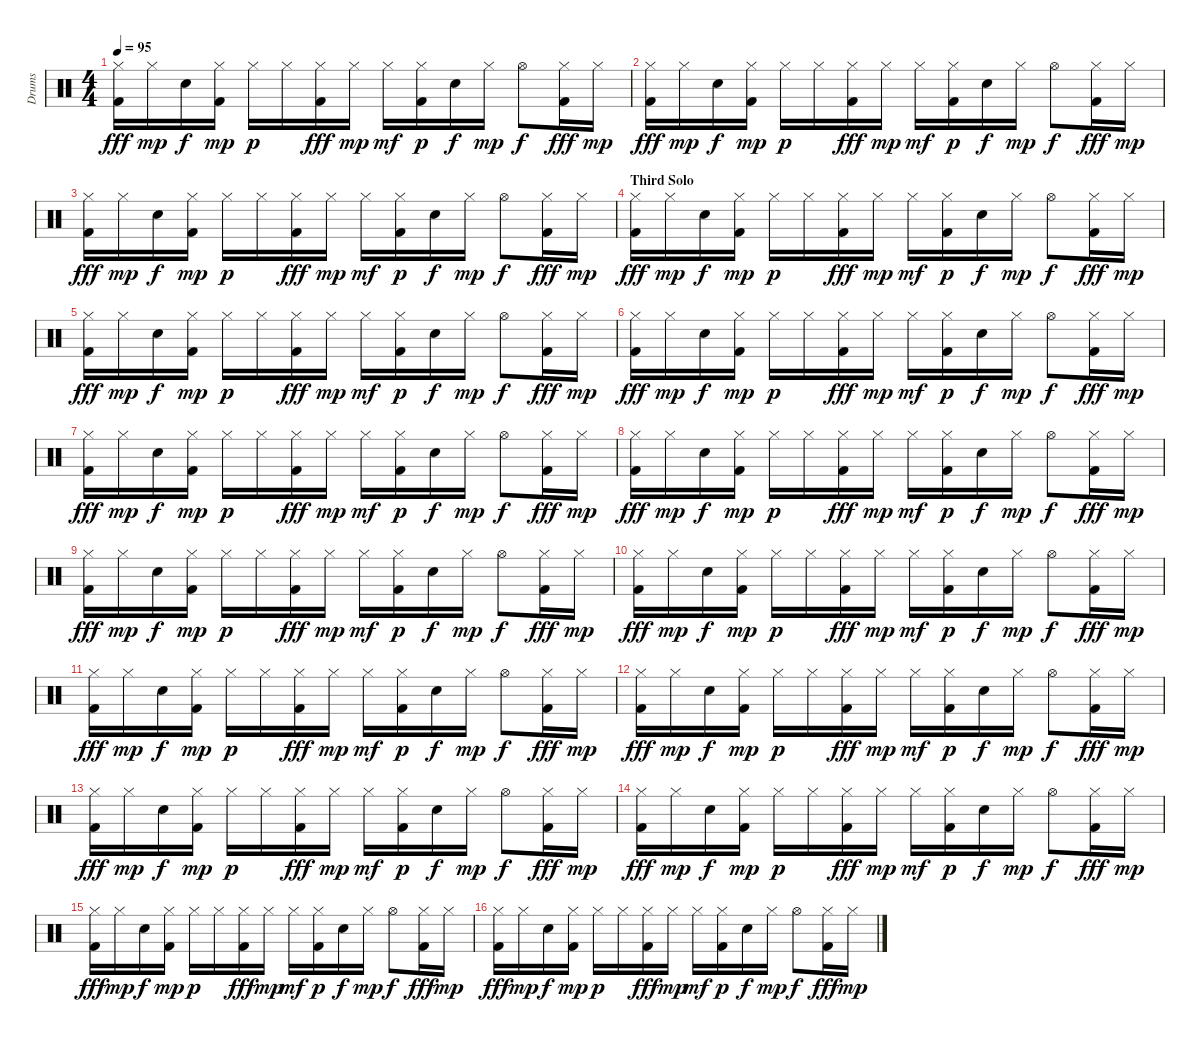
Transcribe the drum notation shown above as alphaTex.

\track ("Drums" "Drums") {instrument percussion}
\staff {score}
\articulation defaults
\ts (4 4)
\tempo 95
\clef neutral
\ks c
("Hi-Hat (closed)" "Kick (hit) 2").16{dy fff} "Hi-Hat (closed)".16{dy mp} "Electric Snare (hit)".16{dy f} ("Hi-Hat (closed)" "Kick (hit) 2").16{dy mp} "Hi-Hat (closed)".16{dy p} "Hi-Hat (closed)".16 ("Hi-Hat (closed)" "Kick (hit) 2").16{dy fff} "Hi-Hat (closed)".16{dy mp} "Hi-Hat (closed)".16{dy mf} ("Hi-Hat (closed)" "Kick (hit) 2").16{dy p} "Electric Snare (hit)".16{dy f} "Hi-Hat (closed)".16{dy mp} "Hi-Hat (open)".8{dy f} ("Hi-Hat (closed)" "Kick (hit) 2").16{dy fff} "Hi-Hat (closed)".16{dy mp} |
("Hi-Hat (closed)" "Kick (hit) 2").16{dy fff} "Hi-Hat (closed)".16{dy mp} "Electric Snare (hit)".16{dy f} ("Hi-Hat (closed)" "Kick (hit) 2").16{dy mp} "Hi-Hat (closed)".16{dy p} "Hi-Hat (closed)".16 ("Hi-Hat (closed)" "Kick (hit) 2").16{dy fff} "Hi-Hat (closed)".16{dy mp} "Hi-Hat (closed)".16{dy mf} ("Hi-Hat (closed)" "Kick (hit) 2").16{dy p} "Electric Snare (hit)".16{dy f} "Hi-Hat (closed)".16{dy mp} "Hi-Hat (open)".8{dy f} ("Hi-Hat (closed)" "Kick (hit) 2").16{dy fff} "Hi-Hat (closed)".16{dy mp} |
("Hi-Hat (closed)" "Kick (hit) 2").16{dy fff} "Hi-Hat (closed)".16{dy mp} "Electric Snare (hit)".16{dy f} ("Hi-Hat (closed)" "Kick (hit) 2").16{dy mp} "Hi-Hat (closed)".16{dy p} "Hi-Hat (closed)".16 ("Hi-Hat (closed)" "Kick (hit) 2").16{dy fff} "Hi-Hat (closed)".16{dy mp} "Hi-Hat (closed)".16{dy mf} ("Hi-Hat (closed)" "Kick (hit) 2").16{dy p} "Electric Snare (hit)".16{dy f} "Hi-Hat (closed)".16{dy mp} "Hi-Hat (open)".8{dy f} ("Hi-Hat (closed)" "Kick (hit) 2").16{dy fff} "Hi-Hat (closed)".16{dy mp} |
\section ("" "Third Solo")
("Hi-Hat (closed)" "Kick (hit) 2").16{dy fff} "Hi-Hat (closed)".16{dy mp} "Electric Snare (hit)".16{dy f} ("Hi-Hat (closed)" "Kick (hit) 2").16{dy mp} "Hi-Hat (closed)".16{dy p} "Hi-Hat (closed)".16 ("Hi-Hat (closed)" "Kick (hit) 2").16{dy fff} "Hi-Hat (closed)".16{dy mp} "Hi-Hat (closed)".16{dy mf} ("Hi-Hat (closed)" "Kick (hit) 2").16{dy p} "Electric Snare (hit)".16{dy f} "Hi-Hat (closed)".16{dy mp} "Hi-Hat (open)".8{dy f} ("Hi-Hat (closed)" "Kick (hit) 2").16{dy fff} "Hi-Hat (closed)".16{dy mp} |
("Hi-Hat (closed)" "Kick (hit) 2").16{dy fff} "Hi-Hat (closed)".16{dy mp} "Electric Snare (hit)".16{dy f} ("Hi-Hat (closed)" "Kick (hit) 2").16{dy mp} "Hi-Hat (closed)".16{dy p} "Hi-Hat (closed)".16 ("Hi-Hat (closed)" "Kick (hit) 2").16{dy fff} "Hi-Hat (closed)".16{dy mp} "Hi-Hat (closed)".16{dy mf} ("Hi-Hat (closed)" "Kick (hit) 2").16{dy p} "Electric Snare (hit)".16{dy f} "Hi-Hat (closed)".16{dy mp} "Hi-Hat (open)".8{dy f} ("Hi-Hat (closed)" "Kick (hit) 2").16{dy fff} "Hi-Hat (closed)".16{dy mp} |
("Hi-Hat (closed)" "Kick (hit) 2").16{dy fff} "Hi-Hat (closed)".16{dy mp} "Electric Snare (hit)".16{dy f} ("Hi-Hat (closed)" "Kick (hit) 2").16{dy mp} "Hi-Hat (closed)".16{dy p} "Hi-Hat (closed)".16 ("Hi-Hat (closed)" "Kick (hit) 2").16{dy fff} "Hi-Hat (closed)".16{dy mp} "Hi-Hat (closed)".16{dy mf} ("Hi-Hat (closed)" "Kick (hit) 2").16{dy p} "Electric Snare (hit)".16{dy f} "Hi-Hat (closed)".16{dy mp} "Hi-Hat (open)".8{dy f} ("Hi-Hat (closed)" "Kick (hit) 2").16{dy fff} "Hi-Hat (closed)".16{dy mp} |
("Hi-Hat (closed)" "Kick (hit) 2").16{dy fff} "Hi-Hat (closed)".16{dy mp} "Electric Snare (hit)".16{dy f} ("Hi-Hat (closed)" "Kick (hit) 2").16{dy mp} "Hi-Hat (closed)".16{dy p} "Hi-Hat (closed)".16 ("Hi-Hat (closed)" "Kick (hit) 2").16{dy fff} "Hi-Hat (closed)".16{dy mp} "Hi-Hat (closed)".16{dy mf} ("Hi-Hat (closed)" "Kick (hit) 2").16{dy p} "Electric Snare (hit)".16{dy f} "Hi-Hat (closed)".16{dy mp} "Hi-Hat (open)".8{dy f} ("Hi-Hat (closed)" "Kick (hit) 2").16{dy fff} "Hi-Hat (closed)".16{dy mp} |
("Hi-Hat (closed)" "Kick (hit) 2").16{dy fff} "Hi-Hat (closed)".16{dy mp} "Electric Snare (hit)".16{dy f} ("Hi-Hat (closed)" "Kick (hit) 2").16{dy mp} "Hi-Hat (closed)".16{dy p} "Hi-Hat (closed)".16 ("Hi-Hat (closed)" "Kick (hit) 2").16{dy fff} "Hi-Hat (closed)".16{dy mp} "Hi-Hat (closed)".16{dy mf} ("Hi-Hat (closed)" "Kick (hit) 2").16{dy p} "Electric Snare (hit)".16{dy f} "Hi-Hat (closed)".16{dy mp} "Hi-Hat (open)".8{dy f} ("Hi-Hat (closed)" "Kick (hit) 2").16{dy fff} "Hi-Hat (closed)".16{dy mp} |
("Hi-Hat (closed)" "Kick (hit) 2").16{dy fff} "Hi-Hat (closed)".16{dy mp} "Electric Snare (hit)".16{dy f} ("Hi-Hat (closed)" "Kick (hit) 2").16{dy mp} "Hi-Hat (closed)".16{dy p} "Hi-Hat (closed)".16 ("Hi-Hat (closed)" "Kick (hit) 2").16{dy fff} "Hi-Hat (closed)".16{dy mp} "Hi-Hat (closed)".16{dy mf} ("Hi-Hat (closed)" "Kick (hit) 2").16{dy p} "Electric Snare (hit)".16{dy f} "Hi-Hat (closed)".16{dy mp} "Hi-Hat (open)".8{dy f} ("Hi-Hat (closed)" "Kick (hit) 2").16{dy fff} "Hi-Hat (closed)".16{dy mp} |
("Hi-Hat (closed)" "Kick (hit) 2").16{dy fff} "Hi-Hat (closed)".16{dy mp} "Electric Snare (hit)".16{dy f} ("Hi-Hat (closed)" "Kick (hit) 2").16{dy mp} "Hi-Hat (closed)".16{dy p} "Hi-Hat (closed)".16 ("Hi-Hat (closed)" "Kick (hit) 2").16{dy fff} "Hi-Hat (closed)".16{dy mp} "Hi-Hat (closed)".16{dy mf} ("Hi-Hat (closed)" "Kick (hit) 2").16{dy p} "Electric Snare (hit)".16{dy f} "Hi-Hat (closed)".16{dy mp} "Hi-Hat (open)".8{dy f} ("Hi-Hat (closed)" "Kick (hit) 2").16{dy fff} "Hi-Hat (closed)".16{dy mp} |
("Hi-Hat (closed)" "Kick (hit) 2").16{dy fff} "Hi-Hat (closed)".16{dy mp} "Electric Snare (hit)".16{dy f} ("Hi-Hat (closed)" "Kick (hit) 2").16{dy mp} "Hi-Hat (closed)".16{dy p} "Hi-Hat (closed)".16 ("Hi-Hat (closed)" "Kick (hit) 2").16{dy fff} "Hi-Hat (closed)".16{dy mp} "Hi-Hat (closed)".16{dy mf} ("Hi-Hat (closed)" "Kick (hit) 2").16{dy p} "Electric Snare (hit)".16{dy f} "Hi-Hat (closed)".16{dy mp} "Hi-Hat (open)".8{dy f} ("Hi-Hat (closed)" "Kick (hit) 2").16{dy fff} "Hi-Hat (closed)".16{dy mp} |
("Hi-Hat (closed)" "Kick (hit) 2").16{dy fff} "Hi-Hat (closed)".16{dy mp} "Electric Snare (hit)".16{dy f} ("Hi-Hat (closed)" "Kick (hit) 2").16{dy mp} "Hi-Hat (closed)".16{dy p} "Hi-Hat (closed)".16 ("Hi-Hat (closed)" "Kick (hit) 2").16{dy fff} "Hi-Hat (closed)".16{dy mp} "Hi-Hat (closed)".16{dy mf} ("Hi-Hat (closed)" "Kick (hit) 2").16{dy p} "Electric Snare (hit)".16{dy f} "Hi-Hat (closed)".16{dy mp} "Hi-Hat (open)".8{dy f} ("Hi-Hat (closed)" "Kick (hit) 2").16{dy fff} "Hi-Hat (closed)".16{dy mp} |
("Hi-Hat (closed)" "Kick (hit) 2").16{dy fff} "Hi-Hat (closed)".16{dy mp} "Electric Snare (hit)".16{dy f} ("Hi-Hat (closed)" "Kick (hit) 2").16{dy mp} "Hi-Hat (closed)".16{dy p} "Hi-Hat (closed)".16 ("Hi-Hat (closed)" "Kick (hit) 2").16{dy fff} "Hi-Hat (closed)".16{dy mp} "Hi-Hat (closed)".16{dy mf} ("Hi-Hat (closed)" "Kick (hit) 2").16{dy p} "Electric Snare (hit)".16{dy f} "Hi-Hat (closed)".16{dy mp} "Hi-Hat (open)".8{dy f} ("Hi-Hat (closed)" "Kick (hit) 2").16{dy fff} "Hi-Hat (closed)".16{dy mp} |
("Hi-Hat (closed)" "Kick (hit) 2").16{dy fff} "Hi-Hat (closed)".16{dy mp} "Electric Snare (hit)".16{dy f} ("Hi-Hat (closed)" "Kick (hit) 2").16{dy mp} "Hi-Hat (closed)".16{dy p} "Hi-Hat (closed)".16 ("Hi-Hat (closed)" "Kick (hit) 2").16{dy fff} "Hi-Hat (closed)".16{dy mp} "Hi-Hat (closed)".16{dy mf} ("Hi-Hat (closed)" "Kick (hit) 2").16{dy p} "Electric Snare (hit)".16{dy f} "Hi-Hat (closed)".16{dy mp} "Hi-Hat (open)".8{dy f} ("Hi-Hat (closed)" "Kick (hit) 2").16{dy fff} "Hi-Hat (closed)".16{dy mp} |
("Hi-Hat (closed)" "Kick (hit) 2").16{dy fff} "Hi-Hat (closed)".16{dy mp} "Electric Snare (hit)".16{dy f} ("Hi-Hat (closed)" "Kick (hit) 2").16{dy mp} "Hi-Hat (closed)".16{dy p} "Hi-Hat (closed)".16 ("Hi-Hat (closed)" "Kick (hit) 2").16{dy fff} "Hi-Hat (closed)".16{dy mp} "Hi-Hat (closed)".16{dy mf} ("Hi-Hat (closed)" "Kick (hit) 2").16{dy p} "Electric Snare (hit)".16{dy f} "Hi-Hat (closed)".16{dy mp} "Hi-Hat (open)".8{dy f} ("Hi-Hat (closed)" "Kick (hit) 2").16{dy fff} "Hi-Hat (closed)".16{dy mp} |
("Hi-Hat (closed)" "Kick (hit) 2").16{dy fff} "Hi-Hat (closed)".16{dy mp} "Electric Snare (hit)".16{dy f} ("Hi-Hat (closed)" "Kick (hit) 2").16{dy mp} "Hi-Hat (closed)".16{dy p} "Hi-Hat (closed)".16 ("Hi-Hat (closed)" "Kick (hit) 2").16{dy fff} "Hi-Hat (closed)".16{dy mp} "Hi-Hat (closed)".16{dy mf} ("Hi-Hat (closed)" "Kick (hit) 2").16{dy p} "Electric Snare (hit)".16{dy f} "Hi-Hat (closed)".16{dy mp} "Hi-Hat (open)".8{dy f} ("Hi-Hat (closed)" "Kick (hit) 2").16{dy fff} "Hi-Hat (closed)".16{dy mp}
